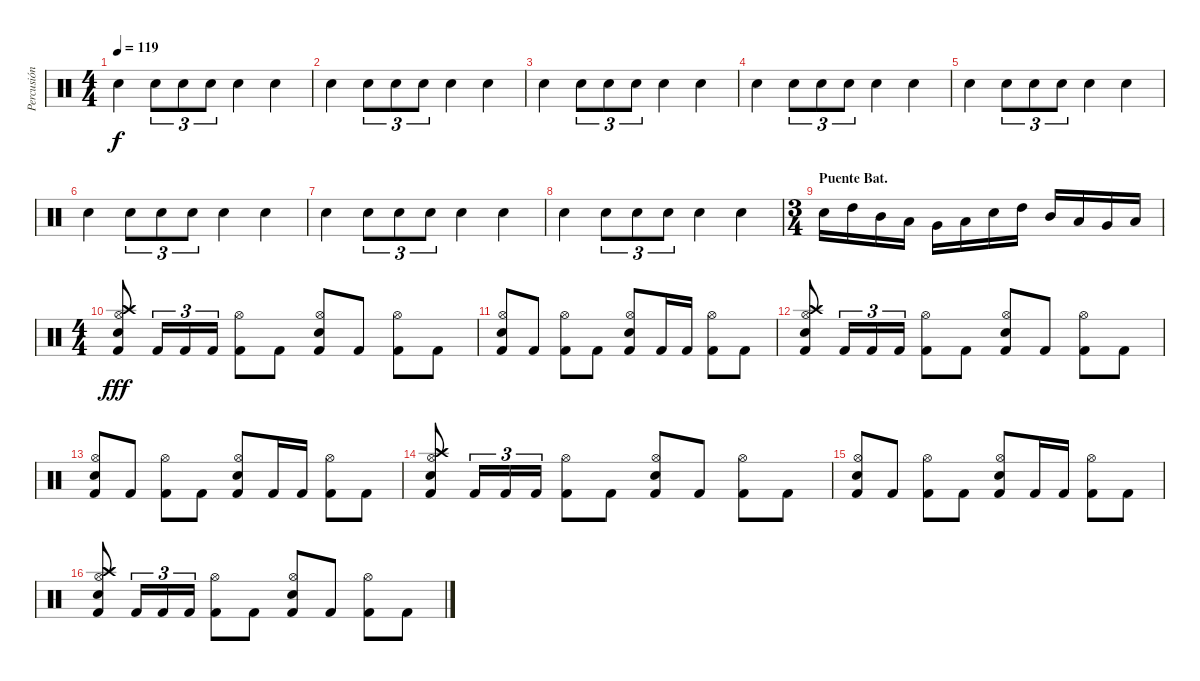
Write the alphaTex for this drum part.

\track ("Percusión" "Percusión") {instrument percussion}
\staff {score}
\articulation defaults
\ts (4 4)
\tempo 119
\clef neutral
\ks c "Electric Snare (hit)".4{dy f} "Electric Snare (hit)".8{tu (3 2)} "Electric Snare (hit)".8{tu (3 2)} "Electric Snare (hit)".8{tu (3 2)} "Electric Snare (hit)".4 "Electric Snare (hit)".4
|
"Electric Snare (hit)".4 "Electric Snare (hit)".8{tu (3 2)} "Electric Snare (hit)".8{tu (3 2)} "Electric Snare (hit)".8{tu (3 2)} "Electric Snare (hit)".4 "Electric Snare (hit)".4 |
"Electric Snare (hit)".4 "Electric Snare (hit)".8{tu (3 2)} "Electric Snare (hit)".8{tu (3 2)} "Electric Snare (hit)".8{tu (3 2)} "Electric Snare (hit)".4 "Electric Snare (hit)".4 |
"Electric Snare (hit)".4 "Electric Snare (hit)".8{tu (3 2)} "Electric Snare (hit)".8{tu (3 2)} "Electric Snare (hit)".8{tu (3 2)} "Electric Snare (hit)".4 "Electric Snare (hit)".4 |
"Electric Snare (hit)".4 "Electric Snare (hit)".8{tu (3 2)} "Electric Snare (hit)".8{tu (3 2)} "Electric Snare (hit)".8{tu (3 2)} "Electric Snare (hit)".4 "Electric Snare (hit)".4 |
"Electric Snare (hit)".4 "Electric Snare (hit)".8{tu (3 2)} "Electric Snare (hit)".8{tu (3 2)} "Electric Snare (hit)".8{tu (3 2)} "Electric Snare (hit)".4 "Electric Snare (hit)".4 |
"Electric Snare (hit)".4 "Electric Snare (hit)".8{tu (3 2)} "Electric Snare (hit)".8{tu (3 2)} "Electric Snare (hit)".8{tu (3 2)} "Electric Snare (hit)".4 "Electric Snare (hit)".4 |
"Electric Snare (hit)".4 "Electric Snare (hit)".8{tu (3 2)} "Electric Snare (hit)".8{tu (3 2)} "Electric Snare (hit)".8{tu (3 2)} "Electric Snare (hit)".4 "Electric Snare (hit)".4 |
\ts (3 4)
\section ("" "Puente Bat.")
"Electric Snare (hit)".16 "High Tom (hit)".16 "Mid Tom (hit)".16 "Low Tom (hit)".16 "Very Low Tom (hit)".16 "Low Floor Tom (hit)".16 "Electric Snare (hit)".16 "High Tom (hit)".16 "Mid Tom (hit)".16 "Low Tom (hit)".16 "Very Low Tom (hit)".16 "Low Floor Tom (hit)".16 |
\ts (4 4)
("Crash high (hit)" "Electric Snare (hit)" "Hi-Hat (open)" "Kick (hit) 2").8{dy fff} "Kick (hit) 2".16{tu (3 2)} "Kick (hit) 2".16{tu (3 2)} "Kick (hit) 2".16{tu (3 2)} ("Hi-Hat (open)" "Kick (hit) 2").8 "Kick (hit) 2".8 ("Electric Snare (hit)" "Hi-Hat (open)" "Kick (hit) 2").8 "Kick (hit) 2".8 ("Hi-Hat (open)" "Kick (hit) 2").8 "Kick (hit) 2".8 |
("Electric Snare (hit)" "Hi-Hat (open)" "Kick (hit) 2").8 "Kick (hit) 2".8 ("Hi-Hat (open)" "Kick (hit) 2").8 "Kick (hit) 2".8 ("Electric Snare (hit)" "Hi-Hat (open)" "Kick (hit) 2").8 "Kick (hit) 2".16 "Kick (hit) 2".16 ("Hi-Hat (open)" "Kick (hit) 2").8 "Kick (hit) 2".8 |
("Crash high (hit)" "Electric Snare (hit)" "Hi-Hat (open)" "Kick (hit) 2").8 "Kick (hit) 2".16{tu (3 2)} "Kick (hit) 2".16{tu (3 2)} "Kick (hit) 2".16{tu (3 2)} ("Hi-Hat (open)" "Kick (hit) 2").8 "Kick (hit) 2".8 ("Electric Snare (hit)" "Hi-Hat (open)" "Kick (hit) 2").8 "Kick (hit) 2".8 ("Hi-Hat (open)" "Kick (hit) 2").8 "Kick (hit) 2".8 |
("Electric Snare (hit)" "Hi-Hat (open)" "Kick (hit) 2").8 "Kick (hit) 2".8 ("Hi-Hat (open)" "Kick (hit) 2").8 "Kick (hit) 2".8 ("Electric Snare (hit)" "Hi-Hat (open)" "Kick (hit) 2").8 "Kick (hit) 2".16 "Kick (hit) 2".16 ("Hi-Hat (open)" "Kick (hit) 2").8 "Kick (hit) 2".8 |
("Crash high (hit)" "Electric Snare (hit)" "Hi-Hat (open)" "Kick (hit) 2").8 "Kick (hit) 2".16{tu (3 2)} "Kick (hit) 2".16{tu (3 2)} "Kick (hit) 2".16{tu (3 2)} ("Hi-Hat (open)" "Kick (hit) 2").8 "Kick (hit) 2".8 ("Electric Snare (hit)" "Hi-Hat (open)" "Kick (hit) 2").8 "Kick (hit) 2".8 ("Hi-Hat (open)" "Kick (hit) 2").8 "Kick (hit) 2".8 |
("Electric Snare (hit)" "Hi-Hat (open)" "Kick (hit) 2").8 "Kick (hit) 2".8 ("Hi-Hat (open)" "Kick (hit) 2").8 "Kick (hit) 2".8 ("Electric Snare (hit)" "Hi-Hat (open)" "Kick (hit) 2").8 "Kick (hit) 2".16 "Kick (hit) 2".16 ("Hi-Hat (open)" "Kick (hit) 2").8 "Kick (hit) 2".8 |
("Crash high (hit)" "Electric Snare (hit)" "Hi-Hat (open)" "Kick (hit) 2").8 "Kick (hit) 2".16{tu (3 2)} "Kick (hit) 2".16{tu (3 2)} "Kick (hit) 2".16{tu (3 2)} ("Hi-Hat (open)" "Kick (hit) 2").8 "Kick (hit) 2".8 ("Electric Snare (hit)" "Hi-Hat (open)" "Kick (hit) 2").8 "Kick (hit) 2".8 ("Hi-Hat (open)" "Kick (hit) 2").8 "Kick (hit) 2".8
